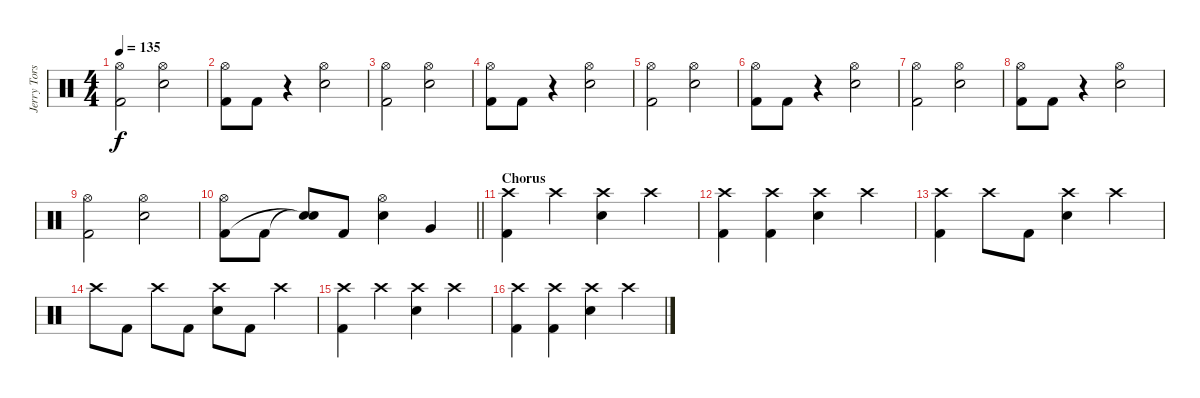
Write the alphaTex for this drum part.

\track ("Jerry Torstensson" "Jerry Tors") {instrument percussion}
\staff {score}
\articulation defaults
\ts (4 4)
\tempo 135
\clef neutral
\ks c
("Hi-Hat (open)" "Kick (hit) 2").2{dy f} ("Hi-Hat (open)" "Snare (hit) 2").2 |
("Hi-Hat (open)" "Kick (hit) 2").8 "Kick (hit) 2".8 r.4 ("Hi-Hat (open)" "Snare (hit) 2").2 |
("Hi-Hat (open)" "Kick (hit) 2").2 ("Hi-Hat (open)" "Snare (hit) 2").2 |
("Hi-Hat (open)" "Kick (hit) 2").8 "Kick (hit) 2".8 r.4 ("Hi-Hat (open)" "Snare (hit) 2").2 |
("Hi-Hat (open)" "Kick (hit) 2").2 ("Hi-Hat (open)" "Snare (hit) 2").2 |
("Hi-Hat (open)" "Kick (hit) 2").8 "Kick (hit) 2".8 r.4 ("Hi-Hat (open)" "Snare (hit) 2").2 |
("Hi-Hat (open)" "Kick (hit) 2").2 ("Hi-Hat (open)" "Snare (hit) 2").2 |
("Hi-Hat (open)" "Kick (hit) 2").8 "Kick (hit) 2".8 r.4 ("Hi-Hat (open)" "Snare (hit) 2").2 |
("Hi-Hat (open)" "Kick (hit) 2").2 ("Hi-Hat (open)" "Snare (hit) 2").2 |
\barLineRight lightlight
("Hi-Hat (open)" "Kick (hit) 2").8 "Kick (hit) 2".8 ("Snare (hit)"{t} "Snare (hit)"{t}).8 "Kick (hit) 2".8 ("Hi-Hat (open)" "Snare (hit) 2").4 "Very Low Tom (hit)".4 |
\section ("" "Chorus")
("Crash high (hit)" "Kick (hit) 2").4 "Crash high (hit)".4 ("Crash high (hit)" "Snare (hit) 2").4 "Crash high (hit)".4 |
("Crash high (hit)" "Kick (hit) 2").4 ("Crash high (hit)" "Kick (hit) 2").4 ("Crash high (hit)" "Snare (hit) 2").4 "Crash high (hit)".4 |
("Crash high (hit)" "Kick (hit) 2").4 "Crash high (hit)".8 "Kick (hit) 2".8 ("Crash high (hit)" "Snare (hit) 2").4 "Crash high (hit)".4 |
"Crash high (hit)".8 "Kick (hit) 2".8 "Crash high (hit)".8 "Kick (hit) 2".8 ("Crash high (hit)" "Snare (hit) 2").8 "Kick (hit) 2".8 "Crash high (hit)".4 |
("Crash high (hit)" "Kick (hit) 2").4 "Crash high (hit)".4 ("Crash high (hit)" "Snare (hit) 2").4 "Crash high (hit)".4 |
("Crash high (hit)" "Kick (hit) 2").4 ("Crash high (hit)" "Kick (hit) 2").4 ("Crash high (hit)" "Snare (hit) 2").4 "Crash high (hit)".4
